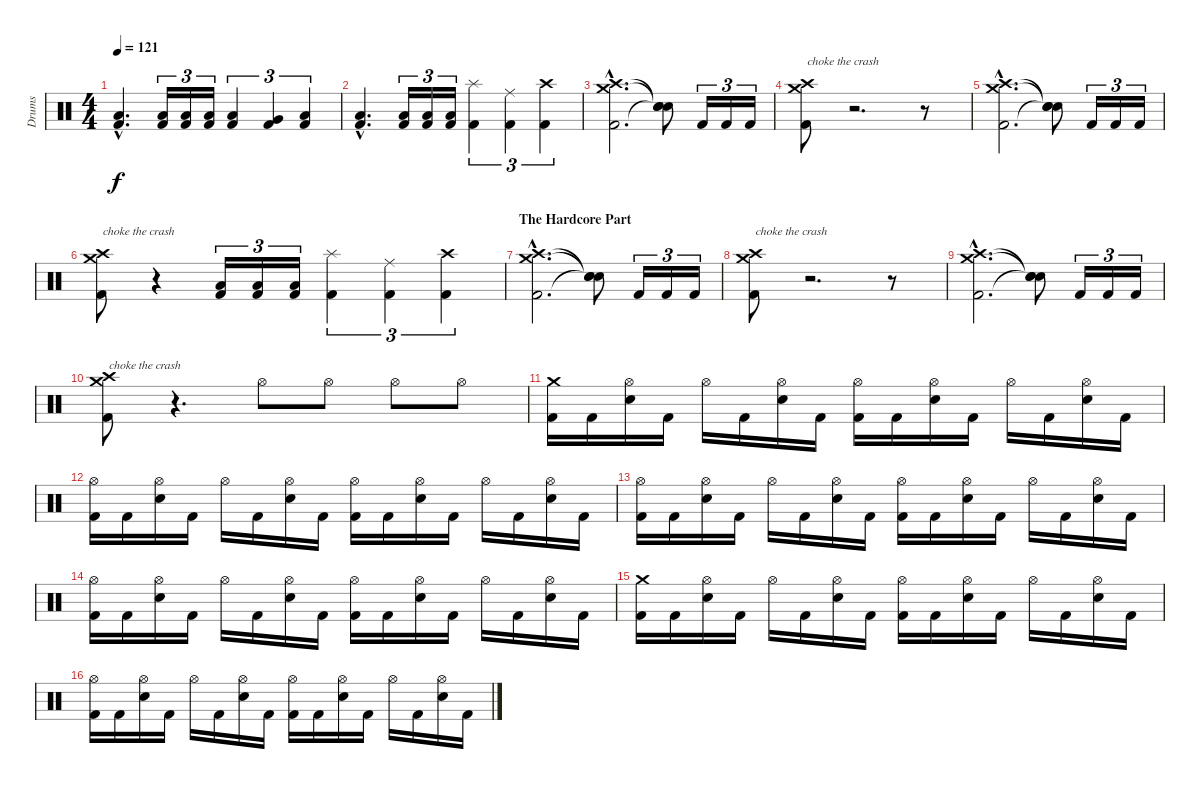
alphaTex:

\track ("Drums" "Drums") {instrument percussion}
\staff {score}
\articulation defaults
\ts (4 4)
\tempo 121
\clef neutral
\ks c
("Low Floor Tom (hit)"{hac} "Kick (hit) 2"{hac}).4{d dy f} ("Low Floor Tom (hit)" "Kick (hit) 2").16{tu (3 2)} ("Low Floor Tom (hit)" "Kick (hit) 2").16{tu (3 2)} ("Low Floor Tom (hit)" "Kick (hit) 2").16{tu (3 2)} ("Low Tom (hit)" "Kick (hit) 2").4{tu (3 2)} ("Very Low Tom (hit)" "Kick (hit) 2").4{tu (3 2)} ("Low Floor Tom (hit)" "Kick (hit) 2").4{tu (3 2)} |
("Low Floor Tom (hit)"{hac} "Kick (hit) 2"{hac}).4{d} ("Low Floor Tom (hit)" "Kick (hit) 2").16{tu (3 2)} ("Low Floor Tom (hit)" "Kick (hit) 2").16{tu (3 2)} ("Low Floor Tom (hit)" "Kick (hit) 2").16{tu (3 2)} ("Splash (hit)" "Kick (hit) 2").4{tu (3 2)} ("Ride (middle)" "Kick (hit) 2").4{tu (3 2)} ("Crash high (hit)" "Kick (hit) 2").4{tu (3 2)} |
("Crash high (hit)"{hac} "Crash medium (hit)"{hac} "Kick (hit) 2"{hac}).2{d} ("Snare (hit)"{t} "Snare (hit)"{t} "Snare (hit)"{t}).8 "Kick (hit) 2".16{tu (3 2)} "Kick (hit) 2".16{tu (3 2)} "Kick (hit) 2".16{tu (3 2)} |
("Crash high (hit)" "Crash medium (hit)" "Kick (hit) 2").8{txt "choke the crash"} r.2{d volume 0} r.8 |
("Crash high (hit)"{hac} "Crash medium (hit)"{hac} "Kick (hit) 2"{hac}).2{d volume 13} ("Snare (hit)"{t} "Snare (hit)"{t} "Snare (hit)"{t}).8 "Kick (hit) 2".16{tu (3 2)} "Kick (hit) 2".16{tu (3 2)} "Kick (hit) 2".16{tu (3 2)} |
("Crash high (hit)" "Crash medium (hit)" "Kick (hit) 2").8{txt "choke the crash"} r.4{volume 0} ("Low Floor Tom (hit)" "Kick (hit) 2").16{tu (3 2) volume 13} ("Low Floor Tom (hit)" "Kick (hit) 2").16{tu (3 2)} ("Low Floor Tom (hit)" "Kick (hit) 2").16{tu (3 2)} ("Splash (hit)" "Kick (hit) 2").4{tu (3 2)} ("Ride (middle)" "Kick (hit) 2").4{tu (3 2)} ("Crash high (hit)" "Kick (hit) 2").4{tu (3 2)} |
\section ("" "The Hardcore Part")
("Crash high (hit)"{hac} "Crash medium (hit)"{hac} "Kick (hit) 2"{hac}).2{d} ("Snare (hit)"{t} "Snare (hit)"{t} "Snare (hit)"{t}).8 "Kick (hit) 2".16{tu (3 2)} "Kick (hit) 2".16{tu (3 2)} "Kick (hit) 2".16{tu (3 2)} |
("Crash high (hit)" "Crash medium (hit)" "Kick (hit) 2").8{txt "choke the crash"} r.2{d volume 0} r.8 |
("Crash high (hit)"{hac} "Crash medium (hit)"{hac} "Kick (hit) 2"{hac}).2{d volume 13} ("Snare (hit)"{t} "Snare (hit)"{t} "Snare (hit)"{t}).8 "Kick (hit) 2".16{tu (3 2)} "Kick (hit) 2".16{tu (3 2)} "Kick (hit) 2".16{tu (3 2)} |
("Crash high (hit)" "Crash medium (hit)" "Kick (hit) 2").8{txt "choke the crash"} r.4{d volume 0} "Hi-Hat (open)".8{volume 13} "Hi-Hat (open)".8 "Hi-Hat (open)".8 "Hi-Hat (open)".8 |
("Crash medium (hit)" "Kick (hit) 2").16 "Kick (hit) 2".16 ("Hi-Hat (open)" "Electric Snare (hit)").16 "Kick (hit) 2".16 "Hi-Hat (open)".16 "Kick (hit) 2".16 ("Hi-Hat (open)" "Electric Snare (hit)").16 "Kick (hit) 2".16 ("Hi-Hat (open)" "Kick (hit) 2").16 "Kick (hit) 2".16 ("Hi-Hat (open)" "Electric Snare (hit)").16 "Kick (hit) 2".16 "Hi-Hat (open)".16 "Kick (hit) 2".16 ("Hi-Hat (open)" "Electric Snare (hit)").16 "Kick (hit) 2".16 |
("Hi-Hat (open)" "Kick (hit) 2").16 "Kick (hit) 2".16 ("Hi-Hat (open)" "Electric Snare (hit)").16 "Kick (hit) 2".16 "Hi-Hat (open)".16 "Kick (hit) 2".16 ("Hi-Hat (open)" "Electric Snare (hit)").16 "Kick (hit) 2".16 ("Hi-Hat (open)" "Kick (hit) 2").16 "Kick (hit) 2".16 ("Hi-Hat (open)" "Electric Snare (hit)").16 "Kick (hit) 2".16 "Hi-Hat (open)".16 "Kick (hit) 2".16 ("Hi-Hat (open)" "Electric Snare (hit)").16 "Kick (hit) 2".16 |
("Hi-Hat (open)" "Kick (hit) 2").16 "Kick (hit) 2".16 ("Hi-Hat (open)" "Electric Snare (hit)").16 "Kick (hit) 2".16 "Hi-Hat (open)".16 "Kick (hit) 2".16 ("Hi-Hat (open)" "Electric Snare (hit)").16 "Kick (hit) 2".16 ("Hi-Hat (open)" "Kick (hit) 2").16 "Kick (hit) 2".16 ("Hi-Hat (open)" "Electric Snare (hit)").16 "Kick (hit) 2".16 "Hi-Hat (open)".16 "Kick (hit) 2".16 ("Hi-Hat (open)" "Electric Snare (hit)").16 "Kick (hit) 2".16 |
("Hi-Hat (open)" "Kick (hit) 2").16 "Kick (hit) 2".16 ("Hi-Hat (open)" "Electric Snare (hit)").16 "Kick (hit) 2".16 "Hi-Hat (open)".16 "Kick (hit) 2".16 ("Hi-Hat (open)" "Electric Snare (hit)").16 "Kick (hit) 2".16 ("Hi-Hat (open)" "Kick (hit) 2").16 "Kick (hit) 2".16 ("Hi-Hat (open)" "Electric Snare (hit)").16 "Kick (hit) 2".16 "Hi-Hat (open)".16 "Kick (hit) 2".16 ("Hi-Hat (open)" "Electric Snare (hit)").16 "Kick (hit) 2".16 |
("Crash medium (hit)" "Kick (hit) 2").16 "Kick (hit) 2".16 ("Hi-Hat (open)" "Electric Snare (hit)").16 "Kick (hit) 2".16 "Hi-Hat (open)".16 "Kick (hit) 2".16 ("Hi-Hat (open)" "Electric Snare (hit)").16 "Kick (hit) 2".16 ("Hi-Hat (open)" "Kick (hit) 2").16 "Kick (hit) 2".16 ("Hi-Hat (open)" "Electric Snare (hit)").16 "Kick (hit) 2".16 "Hi-Hat (open)".16 "Kick (hit) 2".16 ("Hi-Hat (open)" "Electric Snare (hit)").16 "Kick (hit) 2".16 |
("Hi-Hat (open)" "Kick (hit) 2").16 "Kick (hit) 2".16 ("Hi-Hat (open)" "Electric Snare (hit)").16 "Kick (hit) 2".16 "Hi-Hat (open)".16 "Kick (hit) 2".16 ("Hi-Hat (open)" "Electric Snare (hit)").16 "Kick (hit) 2".16 ("Hi-Hat (open)" "Kick (hit) 2").16 "Kick (hit) 2".16 ("Hi-Hat (open)" "Electric Snare (hit)").16 "Kick (hit) 2".16 "Hi-Hat (open)".16 "Kick (hit) 2".16 ("Hi-Hat (open)" "Electric Snare (hit)").16 "Kick (hit) 2".16
